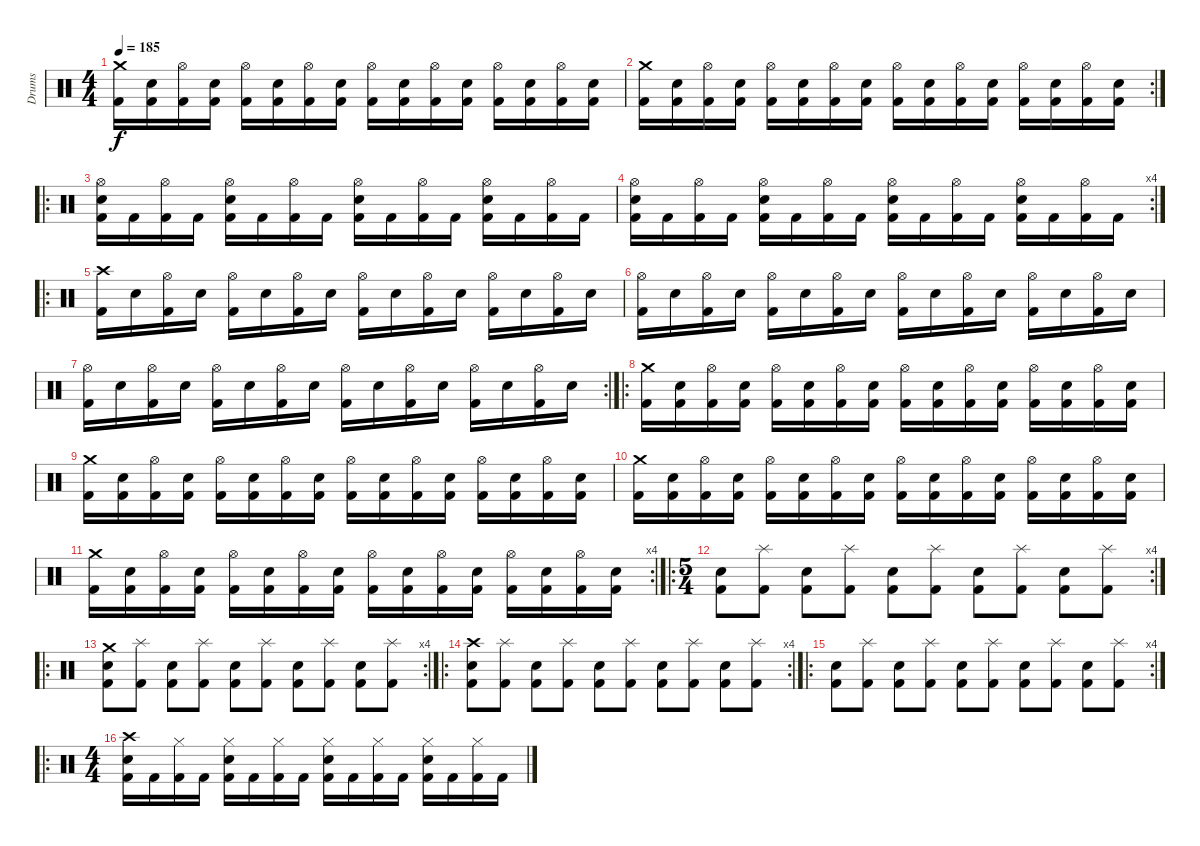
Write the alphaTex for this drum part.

\track ("Drums" "Drums") {instrument percussion}
\staff {score}
\articulation defaults
\ts (4 4)
\tempo 185
\clef neutral
\ks c
("Crash medium (hit)" "Kick (hit) 2").16{dy f} ("Snare (hit) 2" "Kick (hit) 2").16 ("Hi-Hat (open)" "Kick (hit) 2").16 ("Snare (hit) 2" "Kick (hit) 2").16 ("Hi-Hat (open)" "Kick (hit) 2").16 ("Snare (hit) 2" "Kick (hit) 2").16 ("Hi-Hat (open)" "Kick (hit) 2").16 ("Snare (hit) 2" "Kick (hit) 2").16 ("Hi-Hat (open)" "Kick (hit) 2").16 ("Snare (hit) 2" "Kick (hit) 2").16 ("Hi-Hat (open)" "Kick (hit) 2").16 ("Snare (hit) 2" "Kick (hit) 2").16 ("Hi-Hat (open)" "Kick (hit) 2").16 ("Snare (hit) 2" "Kick (hit) 2").16 ("Hi-Hat (open)" "Kick (hit) 2").16 ("Snare (hit) 2" "Kick (hit) 2").16 |
\rc 2
("Crash medium (hit)" "Kick (hit) 2").16 ("Snare (hit) 2" "Kick (hit) 2").16 ("Hi-Hat (open)" "Kick (hit) 2").16 ("Snare (hit) 2" "Kick (hit) 2").16 ("Hi-Hat (open)" "Kick (hit) 2").16 ("Snare (hit) 2" "Kick (hit) 2").16 ("Hi-Hat (open)" "Kick (hit) 2").16 ("Snare (hit) 2" "Kick (hit) 2").16 ("Hi-Hat (open)" "Kick (hit) 2").16 ("Snare (hit) 2" "Kick (hit) 2").16 ("Hi-Hat (open)" "Kick (hit) 2").16 ("Snare (hit) 2" "Kick (hit) 2").16 ("Hi-Hat (open)" "Kick (hit) 2").16 ("Snare (hit) 2" "Kick (hit) 2").16 ("Hi-Hat (open)" "Kick (hit) 2").16 ("Snare (hit) 2" "Kick (hit) 2").16 |
\ro
("Hi-Hat (open)" "Snare (hit) 2" "Kick (hit) 2").16 "Kick (hit) 2".16 ("Hi-Hat (open)" "Kick (hit) 2").16 "Kick (hit) 2".16 ("Hi-Hat (open)" "Snare (hit) 2" "Kick (hit) 2").16 "Kick (hit) 2".16 ("Hi-Hat (open)" "Kick (hit) 2").16 "Kick (hit) 2".16 ("Hi-Hat (open)" "Snare (hit) 2" "Kick (hit) 2").16 "Kick (hit) 2".16 ("Hi-Hat (open)" "Kick (hit) 2").16 "Kick (hit) 2".16 ("Hi-Hat (open)" "Snare (hit) 2" "Kick (hit) 2").16 "Kick (hit) 2".16 ("Hi-Hat (open)" "Kick (hit) 2").16 "Kick (hit) 2".16 |
\rc 4
("Hi-Hat (open)" "Snare (hit) 2" "Kick (hit) 2").16 "Kick (hit) 2".16 ("Hi-Hat (open)" "Kick (hit) 2").16 "Kick (hit) 2".16 ("Hi-Hat (open)" "Snare (hit) 2" "Kick (hit) 2").16 "Kick (hit) 2".16 ("Hi-Hat (open)" "Kick (hit) 2").16 "Kick (hit) 2".16 ("Hi-Hat (open)" "Snare (hit) 2" "Kick (hit) 2").16 "Kick (hit) 2".16 ("Hi-Hat (open)" "Kick (hit) 2").16 "Kick (hit) 2".16 ("Hi-Hat (open)" "Snare (hit) 2" "Kick (hit) 2").16 "Kick (hit) 2".16 ("Hi-Hat (open)" "Kick (hit) 2").16 "Kick (hit) 2".16 |
\ro
("Crash high (hit)" "Kick (hit) 2").16 "Snare (hit) 2".16 ("Hi-Hat (open)" "Kick (hit) 2").16 "Snare (hit) 2".16 ("Hi-Hat (open)" "Kick (hit) 2").16 "Snare (hit) 2".16 ("Hi-Hat (open)" "Kick (hit) 2").16 "Snare (hit) 2".16 ("Hi-Hat (open)" "Kick (hit) 2").16 "Snare (hit) 2".16 ("Hi-Hat (open)" "Kick (hit) 2").16 "Snare (hit) 2".16 ("Hi-Hat (open)" "Kick (hit) 2").16 "Snare (hit) 2".16 ("Hi-Hat (open)" "Kick (hit) 2").16 "Snare (hit) 2".16 |
("Hi-Hat (open)" "Kick (hit) 2").16 "Snare (hit) 2".16 ("Hi-Hat (open)" "Kick (hit) 2").16 "Snare (hit) 2".16 ("Hi-Hat (open)" "Kick (hit) 2").16 "Snare (hit) 2".16 ("Hi-Hat (open)" "Kick (hit) 2").16 "Snare (hit) 2".16 ("Hi-Hat (open)" "Kick (hit) 2").16 "Snare (hit) 2".16 ("Hi-Hat (open)" "Kick (hit) 2").16 "Snare (hit) 2".16 ("Hi-Hat (open)" "Kick (hit) 2").16 "Snare (hit) 2".16 ("Hi-Hat (open)" "Kick (hit) 2").16 "Snare (hit) 2".16 |
\rc 2
("Hi-Hat (open)" "Kick (hit) 2").16 "Snare (hit) 2".16 ("Hi-Hat (open)" "Kick (hit) 2").16 "Snare (hit) 2".16 ("Hi-Hat (open)" "Kick (hit) 2").16 "Snare (hit) 2".16 ("Hi-Hat (open)" "Kick (hit) 2").16 "Snare (hit) 2".16 ("Hi-Hat (open)" "Kick (hit) 2").16 "Snare (hit) 2".16 ("Hi-Hat (open)" "Kick (hit) 2").16 "Snare (hit) 2".16 ("Hi-Hat (open)" "Kick (hit) 2").16 "Snare (hit) 2".16 ("Hi-Hat (open)" "Kick (hit) 2").16 "Snare (hit) 2".16 |
\ro
("Crash medium (hit)" "Kick (hit) 2").16 ("Snare (hit) 2" "Kick (hit) 2").16 ("Hi-Hat (open)" "Kick (hit) 2").16 ("Snare (hit) 2" "Kick (hit) 2").16 ("Hi-Hat (open)" "Kick (hit) 2").16 ("Snare (hit) 2" "Kick (hit) 2").16 ("Hi-Hat (open)" "Kick (hit) 2").16 ("Snare (hit) 2" "Kick (hit) 2").16 ("Hi-Hat (open)" "Kick (hit) 2").16 ("Snare (hit) 2" "Kick (hit) 2").16 ("Hi-Hat (open)" "Kick (hit) 2").16 ("Snare (hit) 2" "Kick (hit) 2").16 ("Hi-Hat (open)" "Kick (hit) 2").16 ("Snare (hit) 2" "Kick (hit) 2").16 ("Hi-Hat (open)" "Kick (hit) 2").16 ("Snare (hit) 2" "Kick (hit) 2").16 |
("Crash medium (hit)" "Kick (hit) 2").16 ("Snare (hit) 2" "Kick (hit) 2").16 ("Hi-Hat (open)" "Kick (hit) 2").16 ("Snare (hit) 2" "Kick (hit) 2").16 ("Hi-Hat (open)" "Kick (hit) 2").16 ("Snare (hit) 2" "Kick (hit) 2").16 ("Hi-Hat (open)" "Kick (hit) 2").16 ("Snare (hit) 2" "Kick (hit) 2").16 ("Hi-Hat (open)" "Kick (hit) 2").16 ("Snare (hit) 2" "Kick (hit) 2").16 ("Hi-Hat (open)" "Kick (hit) 2").16 ("Snare (hit) 2" "Kick (hit) 2").16 ("Hi-Hat (open)" "Kick (hit) 2").16 ("Snare (hit) 2" "Kick (hit) 2").16 ("Hi-Hat (open)" "Kick (hit) 2").16 ("Snare (hit) 2" "Kick (hit) 2").16 |
("Crash medium (hit)" "Kick (hit) 2").16 ("Snare (hit) 2" "Kick (hit) 2").16 ("Hi-Hat (open)" "Kick (hit) 2").16 ("Snare (hit) 2" "Kick (hit) 2").16 ("Hi-Hat (open)" "Kick (hit) 2").16 ("Snare (hit) 2" "Kick (hit) 2").16 ("Hi-Hat (open)" "Kick (hit) 2").16 ("Snare (hit) 2" "Kick (hit) 2").16 ("Hi-Hat (open)" "Kick (hit) 2").16 ("Snare (hit) 2" "Kick (hit) 2").16 ("Hi-Hat (open)" "Kick (hit) 2").16 ("Snare (hit) 2" "Kick (hit) 2").16 ("Hi-Hat (open)" "Kick (hit) 2").16 ("Snare (hit) 2" "Kick (hit) 2").16 ("Hi-Hat (open)" "Kick (hit) 2").16 ("Snare (hit) 2" "Kick (hit) 2").16 |
\rc 4
("Crash medium (hit)" "Kick (hit) 2").16 ("Snare (hit) 2" "Kick (hit) 2").16 ("Hi-Hat (open)" "Kick (hit) 2").16 ("Snare (hit) 2" "Kick (hit) 2").16 ("Hi-Hat (open)" "Kick (hit) 2").16 ("Snare (hit) 2" "Kick (hit) 2").16 ("Hi-Hat (open)" "Kick (hit) 2").16 ("Snare (hit) 2" "Kick (hit) 2").16 ("Hi-Hat (open)" "Kick (hit) 2").16 ("Snare (hit) 2" "Kick (hit) 2").16 ("Hi-Hat (open)" "Kick (hit) 2").16 ("Snare (hit) 2" "Kick (hit) 2").16 ("Hi-Hat (open)" "Kick (hit) 2").16 ("Snare (hit) 2" "Kick (hit) 2").16 ("Hi-Hat (open)" "Kick (hit) 2").16 ("Snare (hit) 2" "Kick (hit) 2").16 |
\ro
\rc 4
\ts (5 4)
("Snare (hit) 2" "Kick (hit) 2").8 ("Splash (hit)" "Kick (hit) 2").8 ("Snare (hit) 2" "Kick (hit) 2").8 ("Splash (hit)" "Kick (hit) 2").8 ("Snare (hit) 2" "Kick (hit) 2").8 ("Splash (hit)" "Kick (hit) 2").8 ("Snare (hit) 2" "Kick (hit) 2").8 ("Splash (hit)" "Kick (hit) 2").8 ("Snare (hit) 2" "Kick (hit) 2").8 ("Splash (hit)" "Kick (hit) 2").8 |
\ro
\rc 4
("Snare (hit) 2" "Crash medium (hit)" "Kick (hit) 2").8 ("Splash (hit)" "Kick (hit) 2").8 ("Snare (hit) 2" "Kick (hit) 2").8 ("Splash (hit)" "Kick (hit) 2").8 ("Snare (hit) 2" "Kick (hit) 2").8 ("Splash (hit)" "Kick (hit) 2").8 ("Snare (hit) 2" "Kick (hit) 2").8 ("Splash (hit)" "Kick (hit) 2").8 ("Snare (hit) 2" "Kick (hit) 2").8 ("Splash (hit)" "Kick (hit) 2").8 |
\ro
\rc 4
("Snare (hit) 2" "Crash high (hit)" "Kick (hit) 2").8 ("Splash (hit)" "Kick (hit) 2").8 ("Snare (hit) 2" "Kick (hit) 2").8 ("Splash (hit)" "Kick (hit) 2").8 ("Snare (hit) 2" "Kick (hit) 2").8 ("Splash (hit)" "Kick (hit) 2").8 ("Snare (hit) 2" "Kick (hit) 2").8 ("Splash (hit)" "Kick (hit) 2").8 ("Snare (hit) 2" "Kick (hit) 2").8 ("Splash (hit)" "Kick (hit) 2").8 |
\ro
\rc 4
("Snare (hit) 2" "Kick (hit) 2").8 ("Splash (hit)" "Kick (hit) 2").8 ("Snare (hit) 2" "Kick (hit) 2").8 ("Splash (hit)" "Kick (hit) 2").8 ("Snare (hit) 2" "Kick (hit) 2").8 ("Splash (hit)" "Kick (hit) 2").8 ("Snare (hit) 2" "Kick (hit) 2").8 ("Splash (hit)" "Kick (hit) 2").8 ("Snare (hit) 2" "Kick (hit) 2").8 ("Splash (hit)" "Kick (hit) 2").8 |
\ro
\ts (4 4)
("Crash high (hit)" "Snare (hit) 2" "Kick (hit) 2").16 "Kick (hit) 2".16 ("Hi-Hat (closed)" "Kick (hit) 2").16 "Kick (hit) 2".16 ("Hi-Hat (closed)" "Snare (hit) 2" "Kick (hit) 2").16 "Kick (hit) 2".16 ("Hi-Hat (closed)" "Kick (hit) 2").16 "Kick (hit) 2".16 ("Hi-Hat (closed)" "Snare (hit) 2" "Kick (hit) 2").16 "Kick (hit) 2".16 ("Hi-Hat (closed)" "Kick (hit) 2").16 "Kick (hit) 2".16 ("Hi-Hat (closed)" "Snare (hit) 2" "Kick (hit) 2").16 "Kick (hit) 2".16 ("Hi-Hat (closed)" "Kick (hit) 2").16 "Kick (hit) 2".16
